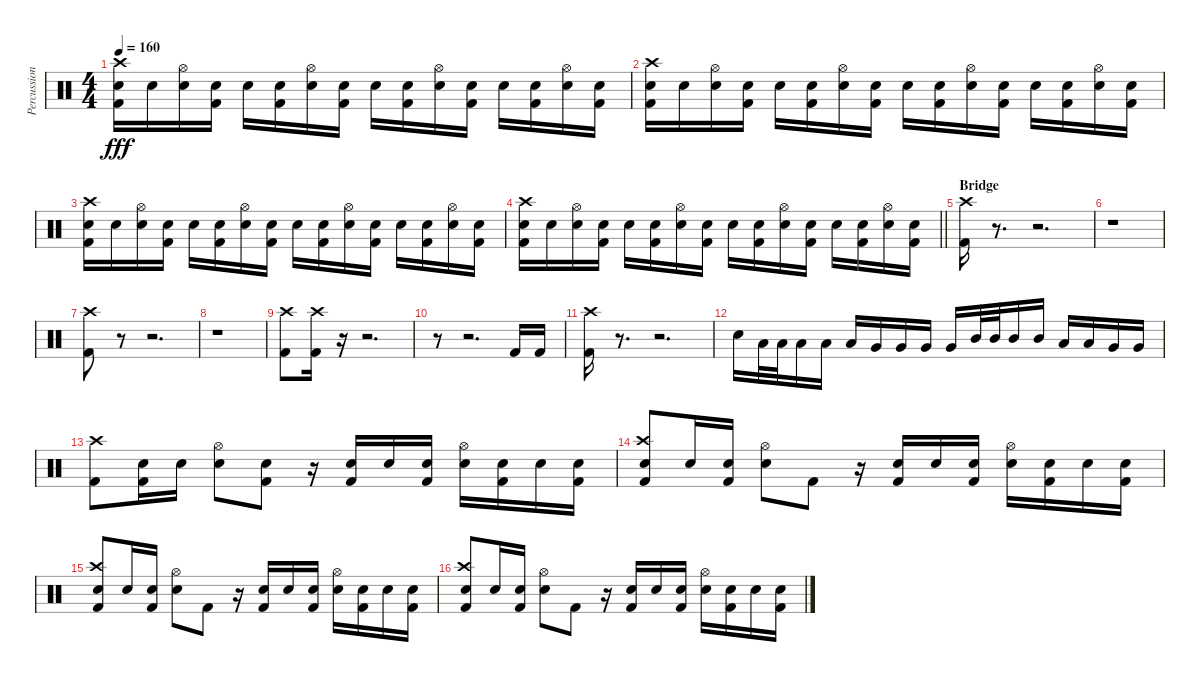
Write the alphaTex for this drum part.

\track ("Percussion" "Percussion") {instrument percussion}
\staff {score}
\articulation defaults
\ts (4 4)
\tempo 160
\clef neutral
\ks c
("Snare (hit) 2" "Crash high (hit)" "Kick (hit) 2").16{dy fff} "Snare (hit) 2".16 ("Snare (hit) 2" "Hi-Hat (open)").16 ("Snare (hit) 2" "Kick (hit) 2").16 "Snare (hit) 2".16 ("Snare (hit) 2" "Kick (hit) 2").16 ("Snare (hit) 2" "Hi-Hat (open)").16 ("Snare (hit) 2" "Kick (hit) 2").16 "Snare (hit) 2".16 ("Snare (hit) 2" "Kick (hit) 2").16 ("Snare (hit) 2" "Hi-Hat (open)").16 ("Snare (hit) 2" "Kick (hit) 2").16 "Snare (hit) 2".16 ("Snare (hit) 2" "Kick (hit) 2").16 ("Snare (hit) 2" "Hi-Hat (open)").16 ("Snare (hit) 2" "Kick (hit) 2").16 |
("Snare (hit) 2" "Crash high (hit)" "Kick (hit) 2").16 "Snare (hit) 2".16 ("Snare (hit) 2" "Hi-Hat (open)").16 ("Snare (hit) 2" "Kick (hit) 2").16 "Snare (hit) 2".16 ("Snare (hit) 2" "Kick (hit) 2").16 ("Snare (hit) 2" "Hi-Hat (open)").16 ("Snare (hit) 2" "Kick (hit) 2").16 "Snare (hit) 2".16 ("Snare (hit) 2" "Kick (hit) 2").16 ("Snare (hit) 2" "Hi-Hat (open)").16 ("Snare (hit) 2" "Kick (hit) 2").16 "Snare (hit) 2".16 ("Snare (hit) 2" "Kick (hit) 2").16 ("Snare (hit) 2" "Hi-Hat (open)").16 ("Snare (hit) 2" "Kick (hit) 2").16 |
("Snare (hit) 2" "Crash high (hit)" "Kick (hit) 2").16 "Snare (hit) 2".16 ("Snare (hit) 2" "Hi-Hat (open)").16 ("Snare (hit) 2" "Kick (hit) 2").16 "Snare (hit) 2".16 ("Snare (hit) 2" "Kick (hit) 2").16 ("Snare (hit) 2" "Hi-Hat (open)").16 ("Snare (hit) 2" "Kick (hit) 2").16 "Snare (hit) 2".16 ("Snare (hit) 2" "Kick (hit) 2").16 ("Snare (hit) 2" "Hi-Hat (open)").16 ("Snare (hit) 2" "Kick (hit) 2").16 "Snare (hit) 2".16 ("Snare (hit) 2" "Kick (hit) 2").16 ("Snare (hit) 2" "Hi-Hat (open)").16 ("Snare (hit) 2" "Kick (hit) 2").16 |
\barLineRight lightlight
("Snare (hit) 2" "Crash high (hit)" "Kick (hit) 2").16 "Snare (hit) 2".16 ("Snare (hit) 2" "Hi-Hat (open)").16 ("Snare (hit) 2" "Kick (hit) 2").16 "Snare (hit) 2".16 ("Snare (hit) 2" "Kick (hit) 2").16 ("Snare (hit) 2" "Hi-Hat (open)").16 ("Snare (hit) 2" "Kick (hit) 2").16 "Snare (hit) 2".16 ("Snare (hit) 2" "Kick (hit) 2").16 ("Snare (hit) 2" "Hi-Hat (open)").16 ("Snare (hit) 2" "Kick (hit) 2").16 "Snare (hit) 2".16 ("Snare (hit) 2" "Kick (hit) 2").16 ("Snare (hit) 2" "Hi-Hat (open)").16 ("Snare (hit) 2" "Kick (hit) 2").16 |
\section ("" "Bridge")
("Kick (hit) 2" "Crash high (hit)").16 r.8{d} r.2{d} |
r.1 |
("Kick (hit) 2" "Crash high (hit)").8 r.8 r.2{d} |
r.1 |
("Kick (hit) 2" "Crash high (hit)").8 ("Kick (hit) 2" "Crash high (hit)").16 r.16 r.2{d} |
r.8 r.2{d} "Kick (hit) 2".16 "Kick (hit) 2".16 |
("Kick (hit) 2" "Crash high (hit)").16 r.8{d} r.2{d} |
"Snare (hit) 2".16 "Low Tom (hit)".32 "Low Tom (hit)".32 "Low Tom (hit)".16 "Low Tom (hit)".16 "Low Tom (hit)".16 "Very Low Tom (hit)".16 "Very Low Tom (hit)".16 "Very Low Tom (hit)".16 "Very Low Tom (hit)".16 "Mid Tom (hit)".32 "Mid Tom (hit)".32 "Mid Tom (hit)".16 "Mid Tom (hit)".16 "Low Tom (hit)".16 "Low Tom (hit)".16 "Very Low Tom (hit)".16 "Very Low Tom (hit)".16 |
("Crash high (hit)" "Kick (hit) 2").8 ("Snare (hit) 2" "Kick (hit) 2").16 "Snare (hit) 2".16 ("Snare (hit) 2" "Hi-Hat (open)").8 ("Snare (hit) 2" "Kick (hit) 2").8 r.16 ("Snare (hit) 2" "Kick (hit) 2").16 "Snare (hit) 2".16 ("Snare (hit) 2" "Kick (hit) 2").16 ("Snare (hit) 2" "Hi-Hat (open)").16 ("Snare (hit) 2" "Kick (hit) 2").16 "Snare (hit) 2".16 ("Snare (hit) 2" "Kick (hit) 2").16 |
("Snare (hit) 2" "Crash high (hit)" "Kick (hit) 2").8 "Snare (hit) 2".16 ("Snare (hit) 2" "Kick (hit) 2").16 ("Snare (hit) 2" "Hi-Hat (open)").8 "Kick (hit) 2".8 r.16 ("Snare (hit) 2" "Kick (hit) 2").16 "Snare (hit) 2".16 ("Snare (hit) 2" "Kick (hit) 2").16 ("Snare (hit) 2" "Hi-Hat (open)").16 ("Snare (hit) 2" "Kick (hit) 2").16 "Snare (hit) 2".16 ("Snare (hit) 2" "Kick (hit) 2").16 |
("Snare (hit) 2" "Crash high (hit)" "Kick (hit) 2").8 "Snare (hit) 2".16 ("Snare (hit) 2" "Kick (hit) 2").16 ("Snare (hit) 2" "Hi-Hat (open)").8 "Kick (hit) 2".8 r.16 ("Snare (hit) 2" "Kick (hit) 2").16 "Snare (hit) 2".16 ("Snare (hit) 2" "Kick (hit) 2").16 ("Snare (hit) 2" "Hi-Hat (open)").16 ("Snare (hit) 2" "Kick (hit) 2").16 "Snare (hit) 2".16 ("Snare (hit) 2" "Kick (hit) 2").16 |
("Snare (hit) 2" "Crash high (hit)" "Kick (hit) 2").8 "Snare (hit) 2".16 ("Snare (hit) 2" "Kick (hit) 2").16 ("Snare (hit) 2" "Hi-Hat (open)").8 "Kick (hit) 2".8 r.16 ("Snare (hit) 2" "Kick (hit) 2").16 "Snare (hit) 2".16 ("Snare (hit) 2" "Kick (hit) 2").16 ("Snare (hit) 2" "Hi-Hat (open)").16 ("Snare (hit) 2" "Kick (hit) 2").16 "Snare (hit) 2".16 ("Snare (hit) 2" "Kick (hit) 2").16
